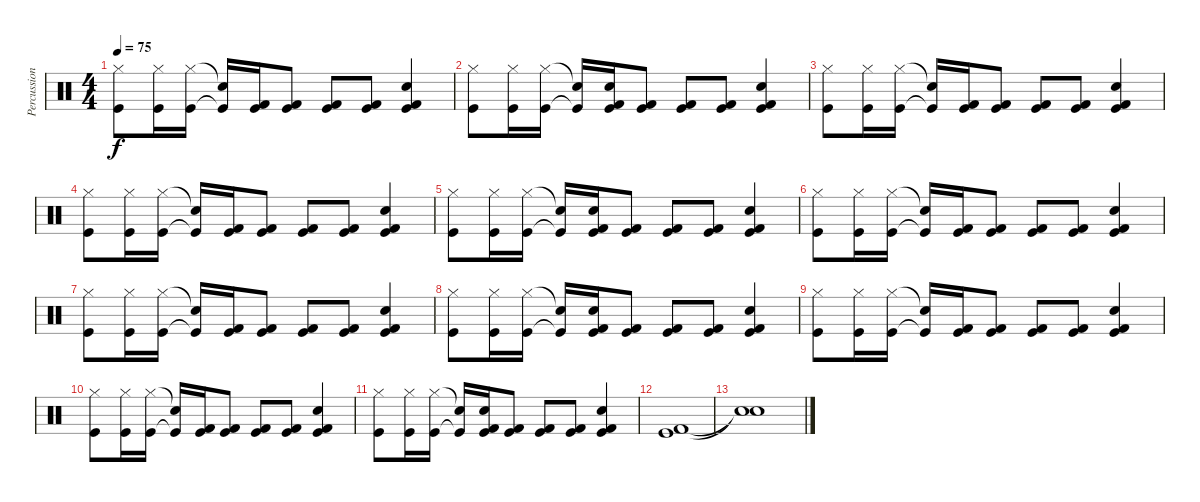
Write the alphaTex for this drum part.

\track ("Percussion" "Percussion") {instrument percussion}
\staff {score}
\articulation defaults
\ts (4 4)
\tempo 75
\clef neutral
\ks c
("Kick (hit)" "Hi-Hat (closed)").8{dy f} ("Kick (hit)" "Hi-Hat (closed)").16 ("Kick (hit)" "Hi-Hat (closed)").16 ("Kick (hit)"{t} "Snare (hit) 2"{t}).16 ("Kick (hit)" "Kick (hit) 2").16 ("Kick (hit)" "Kick (hit) 2").8 ("Kick (hit)" "Kick (hit) 2").8 ("Kick (hit)" "Kick (hit) 2").8 ("Kick (hit)" "Kick (hit) 2" "Snare (hit) 2").4 |
("Kick (hit)" "Hi-Hat (closed)").8 ("Kick (hit)" "Hi-Hat (closed)").16 ("Kick (hit)" "Hi-Hat (closed)").16 ("Kick (hit)"{t} "Snare (hit) 2"{t}).16 ("Kick (hit)" "Kick (hit) 2" "Snare (hit) 2").16 ("Kick (hit)" "Kick (hit) 2").8 ("Kick (hit)" "Kick (hit) 2").8 ("Kick (hit)" "Kick (hit) 2").8 ("Kick (hit)" "Kick (hit) 2" "Snare (hit) 2").4 |
("Kick (hit)" "Hi-Hat (closed)").8 ("Kick (hit)" "Hi-Hat (closed)").16 ("Kick (hit)" "Hi-Hat (closed)").16 ("Kick (hit)"{t} "Snare (hit) 2"{t}).16 ("Kick (hit)" "Kick (hit) 2").16 ("Kick (hit)" "Kick (hit) 2").8 ("Kick (hit)" "Kick (hit) 2").8 ("Kick (hit)" "Kick (hit) 2").8 ("Kick (hit)" "Kick (hit) 2" "Snare (hit) 2").4 |
("Kick (hit)" "Hi-Hat (closed)").8 ("Kick (hit)" "Hi-Hat (closed)").16 ("Kick (hit)" "Hi-Hat (closed)").16 ("Kick (hit)"{t} "Snare (hit) 2"{t}).16 ("Kick (hit)" "Kick (hit) 2").16 ("Kick (hit)" "Kick (hit) 2").8 ("Kick (hit)" "Kick (hit) 2").8 ("Kick (hit)" "Kick (hit) 2").8 ("Kick (hit)" "Kick (hit) 2" "Snare (hit) 2").4 |
("Kick (hit)" "Hi-Hat (closed)").8 ("Kick (hit)" "Hi-Hat (closed)").16 ("Kick (hit)" "Hi-Hat (closed)").16 ("Kick (hit)"{t} "Snare (hit) 2"{t}).16 ("Kick (hit)" "Kick (hit) 2" "Electric Snare (hit)").16 ("Kick (hit)" "Kick (hit) 2").8 ("Kick (hit)" "Kick (hit) 2").8 ("Kick (hit)" "Kick (hit) 2").8 ("Kick (hit)" "Kick (hit) 2" "Snare (hit) 2").4 |
("Kick (hit)" "Hi-Hat (closed)").8 ("Kick (hit)" "Hi-Hat (closed)").16 ("Kick (hit)" "Hi-Hat (closed)").16 ("Kick (hit)"{t} "Snare (hit) 2"{t}).16 ("Kick (hit)" "Kick (hit) 2").16 ("Kick (hit)" "Kick (hit) 2").8 ("Kick (hit)" "Kick (hit) 2").8 ("Kick (hit)" "Kick (hit) 2").8 ("Kick (hit)" "Kick (hit) 2" "Snare (hit) 2").4 |
("Kick (hit)" "Hi-Hat (closed)").8 ("Kick (hit)" "Hi-Hat (closed)").16 ("Kick (hit)" "Hi-Hat (closed)").16 ("Kick (hit)"{t} "Snare (hit) 2"{t}).16 ("Kick (hit)" "Kick (hit) 2").16 ("Kick (hit)" "Kick (hit) 2").8 ("Kick (hit)" "Kick (hit) 2").8 ("Kick (hit)" "Kick (hit) 2").8 ("Kick (hit)" "Kick (hit) 2" "Snare (hit) 2").4 |
("Kick (hit)" "Hi-Hat (closed)").8 ("Kick (hit)" "Hi-Hat (closed)").16 ("Kick (hit)" "Hi-Hat (closed)").16 ("Kick (hit)"{t} "Snare (hit) 2"{t}).16 ("Kick (hit)" "Kick (hit) 2" "Snare (hit) 2").16 ("Kick (hit)" "Kick (hit) 2").8 ("Kick (hit)" "Kick (hit) 2").8 ("Kick (hit)" "Kick (hit) 2").8 ("Kick (hit)" "Kick (hit) 2" "Snare (hit) 2").4 |
("Kick (hit)" "Hi-Hat (closed)").8 ("Kick (hit)" "Hi-Hat (closed)").16 ("Kick (hit)" "Hi-Hat (closed)").16 ("Kick (hit)"{t} "Snare (hit) 2"{t}).16 ("Kick (hit)" "Kick (hit) 2").16 ("Kick (hit)" "Kick (hit) 2").8 ("Kick (hit)" "Kick (hit) 2").8 ("Kick (hit)" "Kick (hit) 2").8 ("Kick (hit)" "Kick (hit) 2" "Snare (hit) 2").4 |
("Kick (hit)" "Hi-Hat (closed)").8 ("Kick (hit)" "Hi-Hat (closed)").16 ("Kick (hit)" "Hi-Hat (closed)").16 ("Kick (hit)"{t} "Snare (hit) 2"{t}).16 ("Kick (hit)" "Kick (hit) 2").16 ("Kick (hit)" "Kick (hit) 2").8 ("Kick (hit)" "Kick (hit) 2").8 ("Kick (hit)" "Kick (hit) 2").8 ("Kick (hit)" "Kick (hit) 2" "Snare (hit) 2").4 |
("Kick (hit)" "Hi-Hat (closed)").8 ("Kick (hit)" "Hi-Hat (closed)").16 ("Kick (hit)" "Hi-Hat (closed)").16 ("Kick (hit)"{t} "Snare (hit) 2"{t}).16 ("Kick (hit)" "Kick (hit) 2" "Electric Snare (hit)").16 ("Kick (hit)" "Kick (hit) 2").8 ("Kick (hit)" "Kick (hit) 2").8 ("Kick (hit)" "Kick (hit) 2").8 ("Kick (hit)" "Kick (hit) 2" "Snare (hit) 2").4 |
("Kick (hit)" "Kick (hit) 2").1 |
("Snare (hit)"{t} "Snare (hit)"{t}).1
